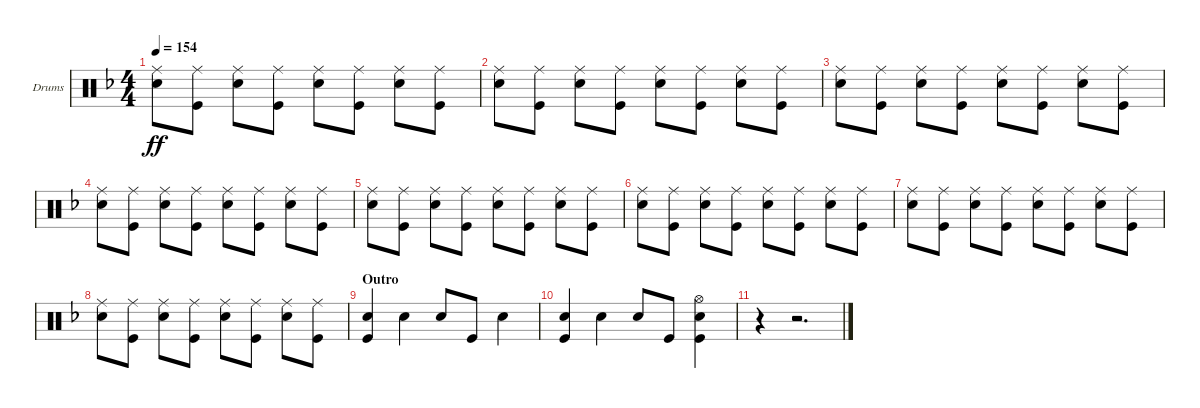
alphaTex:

\bracketExtendMode groupsimilarinstruments
\firstSystemTrackNameOrientation horizontal
\otherSystemsTrackNameOrientation horizontal
\track ("Fabrizio Moretti" "Drums") {instrument percussion}
\staff {score}
\articulation defaults
\ts (4 4)
\tempo 154
\clef neutral
\ks f
("Ride (middle)" "Snare (hit) 2").8{dy ff} ("Ride (middle)" "Kick (hit)").8 ("Ride (middle)" "Snare (hit) 2").8 ("Ride (middle)" "Kick (hit)").8 ("Ride (middle)" "Snare (hit) 2").8 ("Ride (middle)" "Kick (hit)").8 ("Ride (middle)" "Snare (hit) 2").8 ("Ride (middle)" "Kick (hit)").8 |
("Ride (middle)" "Snare (hit) 2").8 ("Ride (middle)" "Kick (hit)").8 ("Ride (middle)" "Snare (hit) 2").8 ("Ride (middle)" "Kick (hit)").8 ("Ride (middle)" "Snare (hit) 2").8 ("Ride (middle)" "Kick (hit)").8 ("Ride (middle)" "Snare (hit) 2").8 ("Ride (middle)" "Kick (hit)").8 |
("Ride (middle)" "Snare (hit) 2").8 ("Ride (middle)" "Kick (hit)").8 ("Ride (middle)" "Snare (hit) 2").8 ("Ride (middle)" "Kick (hit)").8 ("Ride (middle)" "Snare (hit) 2").8 ("Ride (middle)" "Kick (hit)").8 ("Ride (middle)" "Snare (hit) 2").8 ("Ride (middle)" "Kick (hit)").8 |
("Ride (middle)" "Snare (hit) 2").8 ("Ride (middle)" "Kick (hit)").8 ("Ride (middle)" "Snare (hit) 2").8 ("Ride (middle)" "Kick (hit)").8 ("Ride (middle)" "Snare (hit) 2").8 ("Ride (middle)" "Kick (hit)").8 ("Ride (middle)" "Snare (hit) 2").8 ("Ride (middle)" "Kick (hit)").8 |
("Ride (middle)" "Snare (hit) 2").8 ("Ride (middle)" "Kick (hit)").8 ("Ride (middle)" "Snare (hit) 2").8 ("Ride (middle)" "Kick (hit)").8 ("Ride (middle)" "Snare (hit) 2").8 ("Ride (middle)" "Kick (hit)").8 ("Ride (middle)" "Snare (hit) 2").8 ("Ride (middle)" "Kick (hit)").8 |
("Ride (middle)" "Snare (hit) 2").8 ("Ride (middle)" "Kick (hit)").8 ("Ride (middle)" "Snare (hit) 2").8 ("Ride (middle)" "Kick (hit)").8 ("Ride (middle)" "Snare (hit) 2").8 ("Ride (middle)" "Kick (hit)").8 ("Ride (middle)" "Snare (hit) 2").8 ("Ride (middle)" "Kick (hit)").8 |
("Ride (middle)" "Snare (hit) 2").8 ("Ride (middle)" "Kick (hit)").8 ("Ride (middle)" "Snare (hit) 2").8 ("Ride (middle)" "Kick (hit)").8 ("Ride (middle)" "Snare (hit) 2").8 ("Ride (middle)" "Kick (hit)").8 ("Ride (middle)" "Snare (hit) 2").8 ("Ride (middle)" "Kick (hit)").8 |
("Ride (middle)" "Snare (hit) 2").8 ("Ride (middle)" "Kick (hit)").8 ("Ride (middle)" "Snare (hit) 2").8 ("Ride (middle)" "Kick (hit)").8 ("Ride (middle)" "Snare (hit) 2").8 ("Ride (middle)" "Kick (hit)").8 ("Ride (middle)" "Snare (hit) 2").8 ("Ride (middle)" "Kick (hit)").8 |
\section ("" "Outro")
("Snare (hit) 2" "Kick (hit)").4 "Snare (hit) 2".4 "Snare (hit) 2".8 "Kick (hit)".8 "Snare (hit) 2".4 |
("Snare (hit) 2" "Kick (hit)").4 "Snare (hit) 2".4 "Snare (hit) 2".8 "Kick (hit)".8 ("Snare (hit) 2" "Kick (hit)" "Hi-Hat (open)").4 |
r.4 r.2{d}
